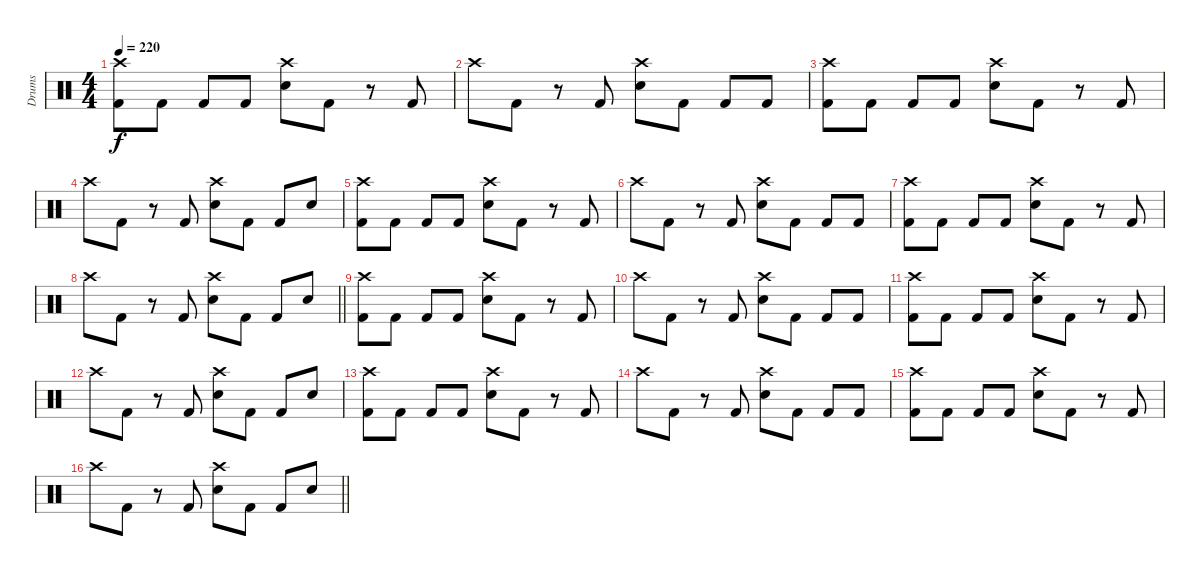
\track ("Drums" "Drums") {instrument percussion}
\staff {score}
\articulation defaults
\ts (4 4)
\tempo 220
\clef neutral
\ks c
("Kick (hit) 2" "Crash high (hit)").8{dy f} "Kick (hit) 2".8 "Kick (hit) 2".8 "Kick (hit) 2".8 ("Electric Snare (hit)" "Crash high (hit)").8 "Kick (hit) 2".8 r.8 "Kick (hit) 2".8 |
"Crash high (hit)".8 "Kick (hit) 2".8 r.8 "Kick (hit) 2".8 ("Electric Snare (hit)" "Crash high (hit)").8 "Kick (hit) 2".8 "Kick (hit) 2".8 "Kick (hit) 2".8 |
("Kick (hit) 2" "Crash high (hit)").8 "Kick (hit) 2".8 "Kick (hit) 2".8 "Kick (hit) 2".8 ("Electric Snare (hit)" "Crash high (hit)").8 "Kick (hit) 2".8 r.8 "Kick (hit) 2".8 |
"Crash high (hit)".8 "Kick (hit) 2".8 r.8 "Kick (hit) 2".8 ("Electric Snare (hit)" "Crash high (hit)").8 "Kick (hit) 2".8 "Kick (hit) 2".8 "Electric Snare (hit)".8 |
("Kick (hit) 2" "Crash high (hit)").8 "Kick (hit) 2".8 "Kick (hit) 2".8 "Kick (hit) 2".8 ("Electric Snare (hit)" "Crash high (hit)").8 "Kick (hit) 2".8 r.8 "Kick (hit) 2".8 |
"Crash high (hit)".8 "Kick (hit) 2".8 r.8 "Kick (hit) 2".8 ("Electric Snare (hit)" "Crash high (hit)").8 "Kick (hit) 2".8 "Kick (hit) 2".8 "Kick (hit) 2".8 |
("Kick (hit) 2" "Crash high (hit)").8 "Kick (hit) 2".8 "Kick (hit) 2".8 "Kick (hit) 2".8 ("Electric Snare (hit)" "Crash high (hit)").8 "Kick (hit) 2".8 r.8 "Kick (hit) 2".8 |
\barLineRight lightlight "Crash high (hit)".8 "Kick (hit) 2".8
r.8 "Kick (hit) 2".8 ("Electric Snare (hit)" "Crash high (hit)").8 "Kick (hit) 2".8 "Kick (hit) 2".8 "Electric Snare (hit)".8 |
("Kick (hit) 2" "Crash high (hit)").8 "Kick (hit) 2".8 "Kick (hit) 2".8 "Kick (hit) 2".8 ("Electric Snare (hit)" "Crash high (hit)").8 "Kick (hit) 2".8 r.8 "Kick (hit) 2".8 |
"Crash high (hit)".8 "Kick (hit) 2".8 r.8 "Kick (hit) 2".8 ("Electric Snare (hit)" "Crash high (hit)").8 "Kick (hit) 2".8 "Kick (hit) 2".8 "Kick (hit) 2".8 |
("Kick (hit) 2" "Crash high (hit)").8 "Kick (hit) 2".8 "Kick (hit) 2".8 "Kick (hit) 2".8 ("Electric Snare (hit)" "Crash high (hit)").8 "Kick (hit) 2".8 r.8 "Kick (hit) 2".8 |
"Crash high (hit)".8 "Kick (hit) 2".8 r.8 "Kick (hit) 2".8 ("Electric Snare (hit)" "Crash high (hit)").8 "Kick (hit) 2".8 "Kick (hit) 2".8 "Electric Snare (hit)".8 |
("Kick (hit) 2" "Crash high (hit)").8 "Kick (hit) 2".8 "Kick (hit) 2".8 "Kick (hit) 2".8 ("Electric Snare (hit)" "Crash high (hit)").8 "Kick (hit) 2".8 r.8 "Kick (hit) 2".8 |
"Crash high (hit)".8 "Kick (hit) 2".8 r.8 "Kick (hit) 2".8 ("Electric Snare (hit)" "Crash high (hit)").8 "Kick (hit) 2".8 "Kick (hit) 2".8 "Kick (hit) 2".8 |
("Kick (hit) 2" "Crash high (hit)").8 "Kick (hit) 2".8 "Kick (hit) 2".8 "Kick (hit) 2".8 ("Electric Snare (hit)" "Crash high (hit)").8 "Kick (hit) 2".8 r.8 "Kick (hit) 2".8 |
\barLineRight lightlight "Crash high (hit)".8 "Kick (hit) 2".8
r.8 "Kick (hit) 2".8 ("Electric Snare (hit)" "Crash high (hit)").8 "Kick (hit) 2".8 "Kick (hit) 2".8 "Electric Snare (hit)".8
